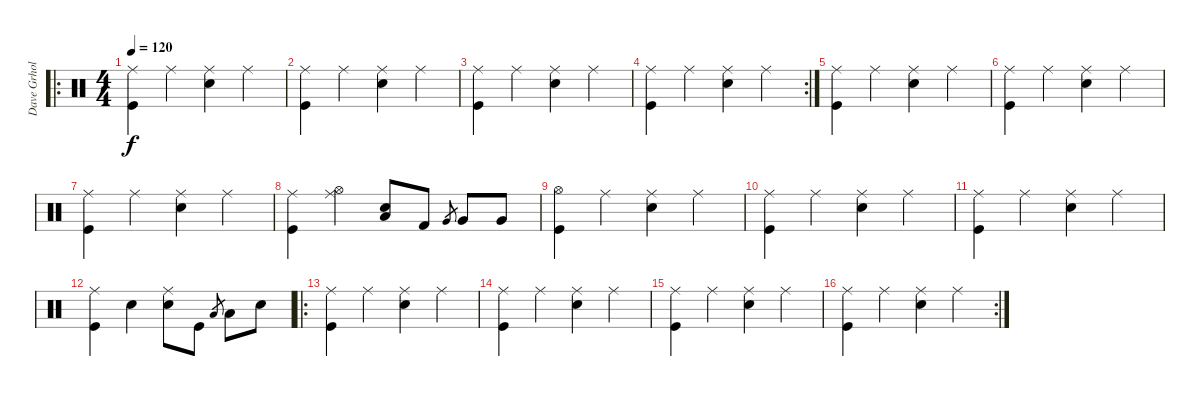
\track ("Dave Grhol" "Dave Grhol") {instrument percussion}
\staff {score}
\articulation defaults
\ro
\ts (4 4)
\tempo 120
\clef neutral
\ks c
("Ride (middle)" "Kick (hit)").4{dy f} "Ride (middle)".4 ("Ride (middle)" "Snare (hit) 2").4 "Ride (middle)".4 |
("Ride (middle)" "Kick (hit)").4 "Ride (middle)".4 ("Ride (middle)" "Snare (hit) 2").4 "Ride (middle)".4 |
("Ride (middle)" "Kick (hit)").4 "Ride (middle)".4 ("Ride (middle)" "Snare (hit) 2").4 "Ride (middle)".4 |
\rc 2
("Ride (middle)" "Kick (hit)").4 "Ride (middle)".4 ("Ride (middle)" "Snare (hit) 2").4 "Ride (middle)".4 |
("Ride (middle)" "Kick (hit)").4 "Ride (middle)".4 ("Ride (middle)" "Snare (hit) 2").4 "Ride (middle)".4 |
("Ride (middle)" "Kick (hit)").4 "Ride (middle)".4 ("Ride (middle)" "Snare (hit) 2").4 "Ride (middle)".4 |
("Ride (middle)" "Kick (hit)").4 "Ride (middle)".4 ("Ride (middle)" "Snare (hit) 2").4 "Ride (middle)".4 |
("Ride (middle)" "Kick (hit)").4 ("Ride (middle)" "Hi-Hat (open)").4 ("Low Floor Tom (hit)" "Snare (hit) 2").8 "Kick (hit) 2".8 "Very Low Tom (hit)".8{gr} "Very Low Tom (hit)".8 "Very Low Tom (hit)".8 |
("Hi-Hat (open)" "Kick (hit)").4 "Ride (middle)".4 ("Ride (middle)" "Snare (hit) 2").4 "Ride (middle)".4 |
("Ride (middle)" "Kick (hit)").4 "Ride (middle)".4 ("Ride (middle)" "Snare (hit) 2").4 "Ride (middle)".4 |
("Ride (middle)" "Kick (hit)").4 "Ride (middle)".4 ("Ride (middle)" "Snare (hit) 2").4 "Ride (middle)".4 |
("Ride (middle)" "Kick (hit)").4 "Electric Snare (hit)".4 ("Ride (middle)" "Electric Snare (hit)").8 "Kick (hit)".8 "Low Tom (hit)".8{gr} "Low Tom (hit)".8 "Electric Snare (hit)".8 |
\ro
("Ride (middle)" "Kick (hit)").4 "Ride (middle)".4 ("Ride (middle)" "Snare (hit) 2").4 "Ride (middle)".4 |
("Ride (middle)" "Kick (hit)").4 "Ride (middle)".4 ("Ride (middle)" "Snare (hit) 2").4 "Ride (middle)".4 |
("Ride (middle)" "Kick (hit)").4 "Ride (middle)".4 ("Ride (middle)" "Snare (hit) 2").4 "Ride (middle)".4 |
\rc 2
("Ride (middle)" "Kick (hit)").4 "Ride (middle)".4 ("Ride (middle)" "Snare (hit) 2").4 "Ride (middle)".4
